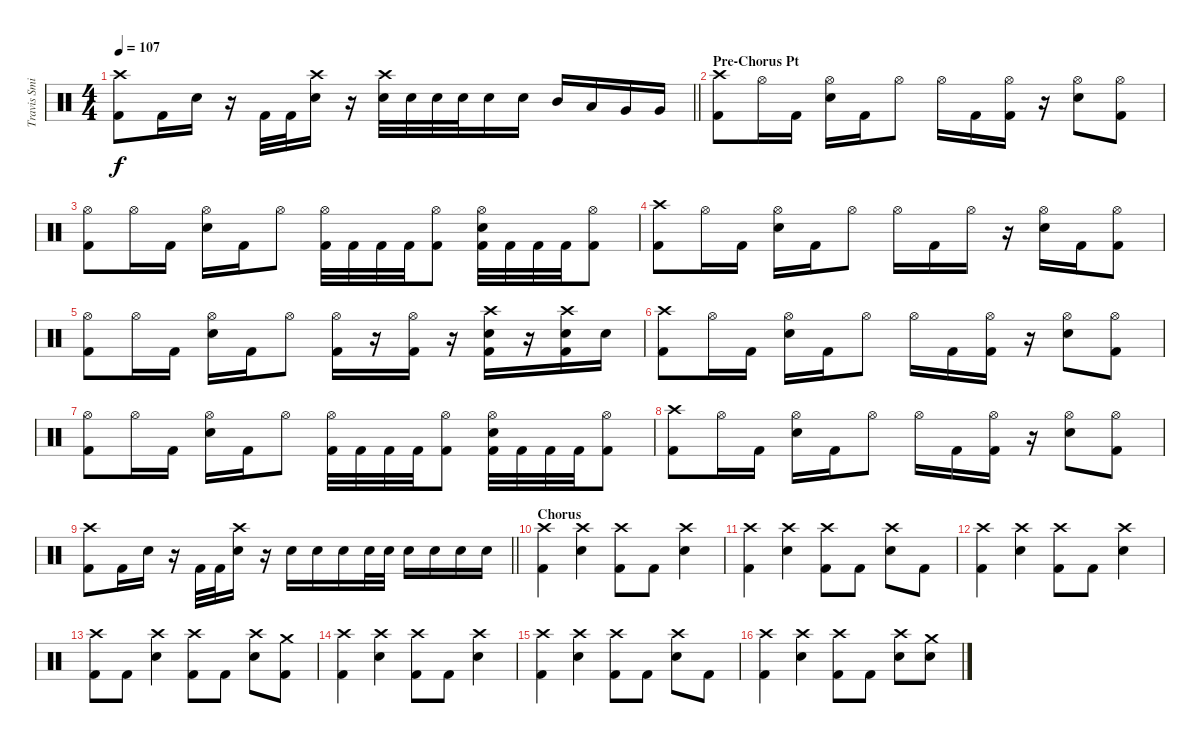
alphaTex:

\track ("Travis Smith" "Travis Smi") {instrument percussion}
\staff {score}
\articulation defaults
\ts (4 4)
\tempo 107
\clef neutral
\barLineRight lightlight
\ks c
("Crash high (hit)" "Kick (hit) 2").8{dy f} "Kick (hit) 2".16 "Electric Snare (hit)".16 r.16 "Kick (hit) 2".32 "Kick (hit) 2".32 ("Crash high (hit)" "Electric Snare (hit)").16 r.16 ("Crash high (hit)" "Electric Snare (hit)").32 "Electric Snare (hit)".32 "Electric Snare (hit)".32 "Electric Snare (hit)".32 "Electric Snare (hit)".16 "Electric Snare (hit)".16 "Mid Tom (hit)".16 "Low Tom (hit)".16 "Very Low Tom (hit)".16 "Very Low Tom (hit)".16 |
\section ("" "Pre-Chorus Pt")
("Crash high (hit)" "Kick (hit) 2").8 "Hi-Hat (open)".16 "Kick (hit) 2".16 ("Hi-Hat (open)" "Electric Snare (hit)").16 "Kick (hit) 2".16 "Hi-Hat (open)".8 "Hi-Hat (open)".16 "Kick (hit) 2".16 ("Hi-Hat (open)" "Kick (hit) 2").16 r.16 ("Hi-Hat (open)" "Electric Snare (hit)").8 ("Hi-Hat (open)" "Kick (hit) 2").8 |
("Hi-Hat (open)" "Kick (hit) 2").8 "Hi-Hat (open)".16 "Kick (hit) 2".16 ("Hi-Hat (open)" "Electric Snare (hit)").16 "Kick (hit) 2".16 "Hi-Hat (open)".8 ("Hi-Hat (open)" "Kick (hit) 2").32 "Kick (hit) 2".32 "Kick (hit) 2".32 "Kick (hit) 2".32 ("Hi-Hat (open)" "Kick (hit) 2").8 ("Hi-Hat (open)" "Electric Snare (hit)" "Kick (hit) 2").32 "Kick (hit) 2".32 "Kick (hit) 2".32 "Kick (hit) 2".32 ("Hi-Hat (open)" "Kick (hit) 2").8 |
("Crash high (hit)" "Kick (hit) 2").8 "Hi-Hat (open)".16 "Kick (hit) 2".16 ("Hi-Hat (open)" "Electric Snare (hit)").16 "Kick (hit) 2".16 "Hi-Hat (open)".8 "Hi-Hat (open)".16 "Kick (hit) 2".16 "Hi-Hat (open)".16 r.16 ("Hi-Hat (open)" "Electric Snare (hit)").16 "Kick (hit) 2".16 ("Hi-Hat (open)" "Kick (hit) 2").8 |
("Hi-Hat (open)" "Kick (hit) 2").8 "Hi-Hat (open)".16 "Kick (hit) 2".16 ("Hi-Hat (open)" "Electric Snare (hit)").16 "Kick (hit) 2".16 "Hi-Hat (open)".8 ("Hi-Hat (open)" "Kick (hit) 2").16 r.16 ("Hi-Hat (open)" "Kick (hit) 2").16 r.16 ("Crash high (hit)" "Electric Snare (hit)" "Kick (hit) 2").16 r.16 ("Crash high (hit)" "Electric Snare (hit)" "Kick (hit) 2").16 "Electric Snare (hit)".16 |
("Crash high (hit)" "Kick (hit) 2").8 "Hi-Hat (open)".16 "Kick (hit) 2".16 ("Hi-Hat (open)" "Electric Snare (hit)").16 "Kick (hit) 2".16 "Hi-Hat (open)".8 "Hi-Hat (open)".16 "Kick (hit) 2".16 ("Hi-Hat (open)" "Kick (hit) 2").16 r.16 ("Hi-Hat (open)" "Electric Snare (hit)").8 ("Hi-Hat (open)" "Kick (hit) 2").8 |
("Hi-Hat (open)" "Kick (hit) 2").8 "Hi-Hat (open)".16 "Kick (hit) 2".16 ("Hi-Hat (open)" "Electric Snare (hit)").16 "Kick (hit) 2".16 "Hi-Hat (open)".8 ("Hi-Hat (open)" "Kick (hit) 2").32 "Kick (hit) 2".32 "Kick (hit) 2".32 "Kick (hit) 2".32 ("Hi-Hat (open)" "Kick (hit) 2").8 ("Hi-Hat (open)" "Electric Snare (hit)" "Kick (hit) 2").32 "Kick (hit) 2".32 "Kick (hit) 2".32 "Kick (hit) 2".32 ("Hi-Hat (open)" "Kick (hit) 2").8 |
("Crash high (hit)" "Kick (hit) 2").8 "Hi-Hat (open)".16 "Kick (hit) 2".16 ("Hi-Hat (open)" "Electric Snare (hit)").16 "Kick (hit) 2".16 "Hi-Hat (open)".8 "Hi-Hat (open)".16 "Kick (hit) 2".16 ("Hi-Hat (open)" "Kick (hit) 2").16 r.16 ("Hi-Hat (open)" "Electric Snare (hit)").8 ("Hi-Hat (open)" "Kick (hit) 2").8 |
\barLineRight lightlight
("Crash high (hit)" "Kick (hit) 2").8 "Kick (hit) 2".16 "Electric Snare (hit)".16 r.16 "Kick (hit) 2".32 "Kick (hit) 2".32 ("Crash high (hit)" "Electric Snare (hit)").16 r.16 "Electric Snare (hit)".16 "Electric Snare (hit)".16 "Electric Snare (hit)".16 "Electric Snare (hit)".32 "Electric Snare (hit)".32 "Electric Snare (hit)".16 "Electric Snare (hit)".16 "Electric Snare (hit)".16 "Electric Snare (hit)".16 |
\section ("" "Chorus")
("Crash high (hit)" "Kick (hit) 2").4 ("Crash high (hit)" "Electric Snare (hit)").4 ("Crash high (hit)" "Kick (hit) 2").8 "Kick (hit) 2".8 ("Crash high (hit)" "Electric Snare (hit)").4 |
("Crash high (hit)" "Kick (hit) 2").4 ("Crash high (hit)" "Electric Snare (hit)").4 ("Crash high (hit)" "Kick (hit) 2").8 "Kick (hit) 2".8 ("Crash high (hit)" "Electric Snare (hit)").8 "Kick (hit) 2".8 |
("Crash high (hit)" "Kick (hit) 2").4 ("Crash high (hit)" "Electric Snare (hit)").4 ("Crash high (hit)" "Kick (hit) 2").8 "Kick (hit) 2".8 ("Crash high (hit)" "Electric Snare (hit)").4 |
("Crash high (hit)" "Kick (hit) 2").8 "Kick (hit) 2".8 ("Crash high (hit)" "Electric Snare (hit)").4 ("Crash high (hit)" "Kick (hit) 2").8 "Kick (hit) 2".8 ("Crash high (hit)" "Electric Snare (hit)").8 ("Crash medium (hit)" "Kick (hit) 2").8 |
("Crash high (hit)" "Kick (hit) 2").4 ("Crash high (hit)" "Electric Snare (hit)").4 ("Crash high (hit)" "Kick (hit) 2").8 "Kick (hit) 2".8 ("Crash high (hit)" "Electric Snare (hit)").4 |
("Crash high (hit)" "Kick (hit) 2").4 ("Crash high (hit)" "Electric Snare (hit)").4 ("Crash high (hit)" "Kick (hit) 2").8 "Kick (hit) 2".8 ("Crash high (hit)" "Electric Snare (hit)").8 "Kick (hit) 2".8 |
("Crash high (hit)" "Kick (hit) 2").4 ("Crash high (hit)" "Electric Snare (hit)").4 ("Crash high (hit)" "Kick (hit) 2").8 "Kick (hit) 2".8 ("Crash high (hit)" "Electric Snare (hit)").8 ("Crash medium (hit)" "Electric Snare (hit)").8
